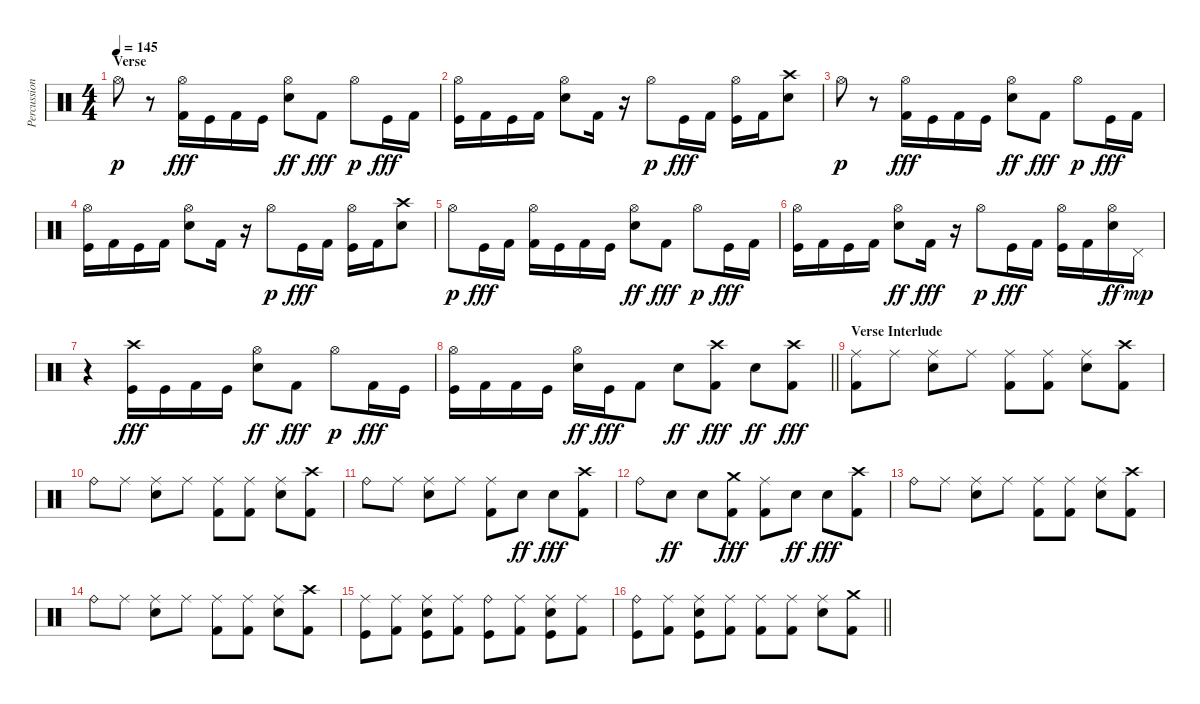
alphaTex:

\track ("Percussion" "Percussion") {instrument percussion}
\staff {score}
\articulation defaults
\ts (4 4)
\section ("" "Verse")
\tempo 145
\clef neutral
\ks c "Hi-Hat (open)".8{dy p}
r.8 ("Hi-Hat (open)" "Kick (hit) 2").16{dy fff} "Kick (hit)".16 "Kick (hit) 2".16 "Kick (hit)".16 ("Hi-Hat (open)" "Snare (hit) 2").8{dy ff} "Kick (hit) 2".8{dy fff} "Hi-Hat (open)".8{dy p} "Kick (hit)".16{dy fff} "Kick (hit) 2".16 |
("Hi-Hat (open)" "Kick (hit)").16 "Kick (hit) 2".16 "Kick (hit)".16 "Kick (hit) 2".16 ("Hi-Hat (open)" "Snare (hit) 2").8 "Kick (hit) 2".16 r.16 "Hi-Hat (open)".8{dy p} "Kick (hit)".16{dy fff} "Kick (hit) 2".16 ("Hi-Hat (open)" "Kick (hit)").16 "Kick (hit) 2".16 ("Crash high (hit)" "Snare (hit) 2").8 |
"Hi-Hat (open)".8{dy p} r.8 ("Hi-Hat (open)" "Kick (hit) 2").16{dy fff} "Kick (hit)".16 "Kick (hit) 2".16 "Kick (hit)".16 ("Hi-Hat (open)" "Snare (hit) 2").8{dy ff} "Kick (hit) 2".8{dy fff} "Hi-Hat (open)".8{dy p} "Kick (hit)".16{dy fff} "Kick (hit) 2".16 |
("Hi-Hat (open)" "Kick (hit)").16 "Kick (hit) 2".16 "Kick (hit)".16 "Kick (hit) 2".16 ("Hi-Hat (open)" "Snare (hit) 2").8 "Kick (hit) 2".16 r.16 "Hi-Hat (open)".8{dy p} "Kick (hit)".16{dy fff} "Kick (hit) 2".16 ("Hi-Hat (open)" "Kick (hit)").16 "Kick (hit) 2".16 ("Crash high (hit)" "Snare (hit) 2").8 |
"Hi-Hat (open)".8{dy p} "Kick (hit)".16{dy fff} "Kick (hit) 2".16 ("Hi-Hat (open)" "Kick (hit) 2").16 "Kick (hit)".16 "Kick (hit) 2".16 "Kick (hit)".16 ("Hi-Hat (open)" "Snare (hit) 2").8{dy ff} "Kick (hit) 2".8{dy fff} "Hi-Hat (open)".8{dy p} "Kick (hit)".16{dy fff} "Kick (hit) 2".16 |
("Hi-Hat (open)" "Kick (hit)").16 "Kick (hit) 2".16 "Kick (hit)".16 "Kick (hit) 2".16 ("Hi-Hat (open)" "Snare (hit) 2").8{dy ff} "Kick (hit) 2".16{dy fff} r.16 "Hi-Hat (open)".8{dy p} "Kick (hit)".16{dy fff} "Kick (hit) 2".16 ("Hi-Hat (open)" "Kick (hit)").16 "Kick (hit) 2".16 ("Hi-Hat (open)" "Snare (hit) 2").16{dy ff} "Pedal Hi-Hat (hit)".16{dy mp} |
r.4 ("Crash high (hit)" "Kick (hit)").16{dy fff} "Kick (hit)".16 "Kick (hit) 2".16 "Kick (hit)".16 ("Hi-Hat (open)" "Snare (hit) 2").8{dy ff} "Kick (hit) 2".8{dy fff} "Hi-Hat (open)".8{dy p} "Kick (hit) 2".16{dy fff} "Kick (hit)".16 |
\barLineRight lightlight
("Hi-Hat (open)" "Kick (hit)").16 "Kick (hit) 2".16 "Kick (hit) 2".16 "Kick (hit)".16 ("Hi-Hat (open)" "Snare (hit) 2").16{dy ff} "Kick (hit)".16{dy fff} "Kick (hit) 2".8 "Snare (hit) 2".8{dy ff} ("Crash high (hit)" "Kick (hit) 2").8{dy fff} "Snare (hit) 2".8{dy ff} ("Crash high (hit)" "Kick (hit) 2").8{dy fff} |
\section ("" "Verse Interlude")
("Ride (middle)" "Kick (hit) 2").8 "Ride (middle)".8 ("Ride (middle)" "Snare (hit) 2").8 "Ride (middle)".8 ("Ride (middle)" "Kick (hit) 2").8 ("Ride (middle)" "Kick (hit) 2").8 ("Ride (middle)" "Snare (hit) 2").8 ("Crash high (hit)" "Kick (hit) 2").8 |
"Ride (bell)".8 "Ride (middle)".8 ("Ride (middle)" "Snare (hit) 2").8 "Ride (middle)".8 ("Ride (middle)" "Kick (hit) 2").8 ("Ride (middle)" "Kick (hit) 2").8 ("Ride (middle)" "Snare (hit) 2").8 ("Crash high (hit)" "Kick (hit) 2").8 |
"Ride (bell)".8 "Ride (middle)".8 ("Ride (middle)" "Snare (hit) 2").8 "Ride (middle)".8 ("Ride (middle)" "Kick (hit) 2").8 "Snare (hit) 2".8{dy ff} "Snare (hit) 2".8{dy fff} ("Crash high (hit)" "Kick (hit) 2").8 |
"Ride (bell)".8 "Snare (hit) 2".8{dy ff} "Snare (hit) 2".8 ("Crash medium (hit)" "Kick (hit) 2").8{dy fff} ("Ride (middle)" "Kick (hit) 2").8 "Snare (hit) 2".8{dy ff} "Snare (hit) 2".8{dy fff} ("Crash high (hit)" "Kick (hit) 2").8 |
"Ride (bell)".8 "Ride (middle)".8 ("Ride (middle)" "Snare (hit) 2").8 "Ride (middle)".8 ("Ride (middle)" "Kick (hit) 2").8 ("Ride (middle)" "Kick (hit) 2").8 ("Ride (middle)" "Snare (hit) 2").8 ("Crash high (hit)" "Kick (hit) 2").8 |
"Ride (bell)".8 "Ride (middle)".8 ("Ride (middle)" "Snare (hit) 2").8 "Ride (middle)".8 ("Ride (middle)" "Kick (hit) 2").8 ("Ride (middle)" "Kick (hit) 2").8 ("Ride (middle)" "Snare (hit) 2").8 ("Crash high (hit)" "Kick (hit) 2").8 |
("Ride (middle)" "Kick (hit)").8 ("Ride (middle)" "Kick (hit) 2").8 ("Ride (middle)" "Snare (hit) 2" "Kick (hit)").8 ("Ride (middle)" "Kick (hit) 2").8 ("Ride (bell)" "Kick (hit)").8 ("Ride (middle)" "Kick (hit) 2").8 ("Ride (middle)" "Snare (hit) 2" "Kick (hit)").8 ("Ride (middle)" "Kick (hit) 2").8 |
\barLineRight lightlight
("Ride (bell)" "Kick (hit)").8 ("Ride (middle)" "Kick (hit) 2").8 ("Ride (middle)" "Snare (hit) 2" "Kick (hit)").8 ("Ride (middle)" "Kick (hit) 2").8 ("Ride (middle)" "Kick (hit) 2").8 ("Ride (middle)" "Kick (hit) 2").8 ("Ride (middle)" "Snare (hit) 2").8 ("Crash medium (hit)" "Kick (hit) 2").8
